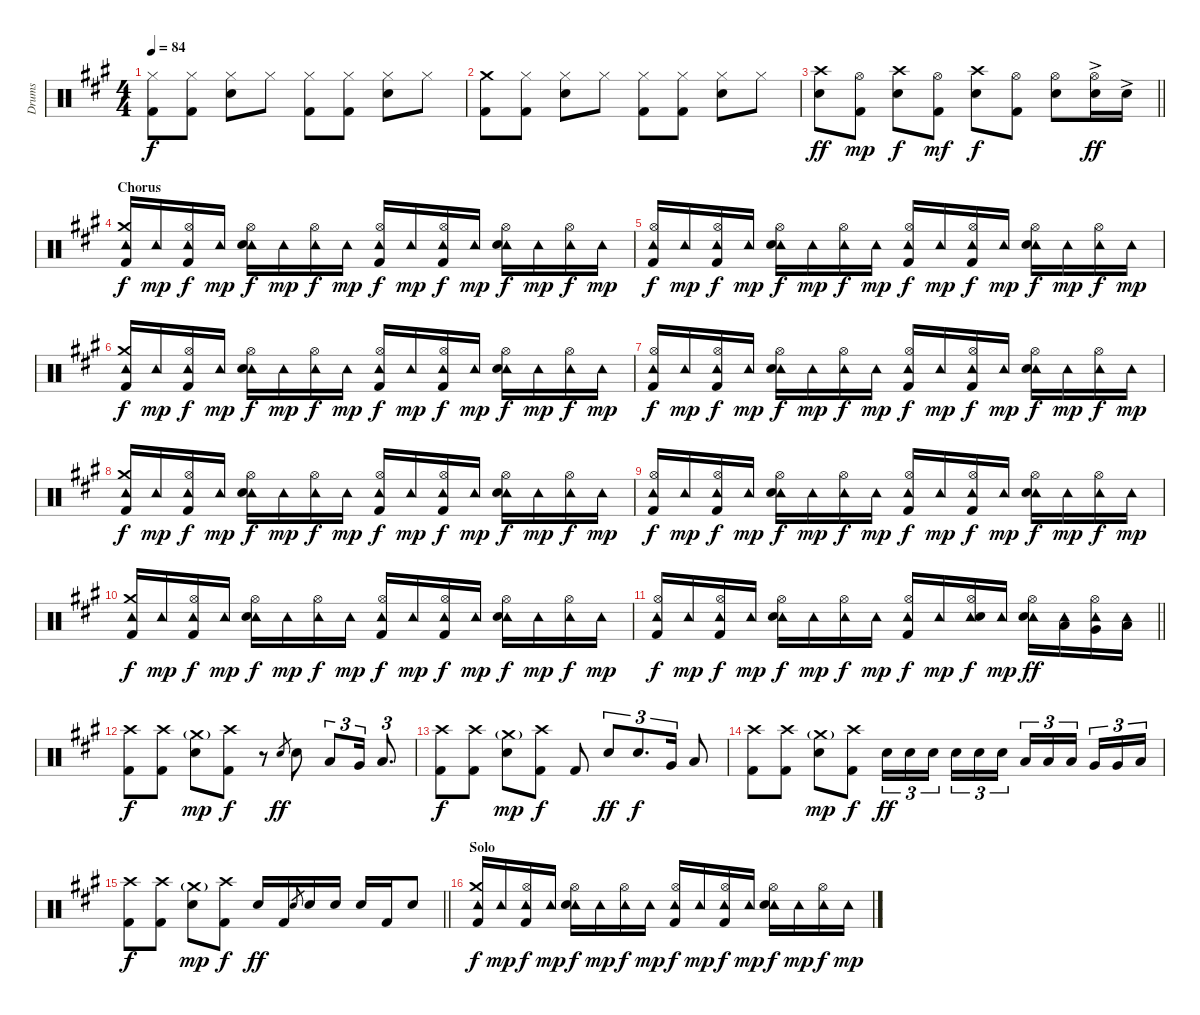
\track ("Drums" "Drums") {instrument percussion}
\staff {score}
\articulation defaults
\ts (4 4)
\tempo 84
\clef neutral
\ks a
("Hi-Hat (closed)" "Kick (hit) 2").8{dy f} ("Hi-Hat (closed)" "Kick (hit) 2").8 ("Hi-Hat (closed)" "Electric Snare (hit)").8 "Hi-Hat (closed)".8 ("Hi-Hat (closed)" "Kick (hit) 2").8 ("Hi-Hat (closed)" "Kick (hit) 2").8 ("Hi-Hat (closed)" "Electric Snare (hit)").8 "Hi-Hat (closed)".8 |
("Crash medium (hit)" "Kick (hit) 2").8 ("Hi-Hat (closed)" "Kick (hit) 2").8 ("Hi-Hat (closed)" "Electric Snare (hit)").8 "Hi-Hat (closed)".8 ("Hi-Hat (closed)" "Kick (hit) 2").8 ("Hi-Hat (closed)" "Kick (hit) 2").8 ("Hi-Hat (closed)" "Electric Snare (hit)").8 "Hi-Hat (closed)".8 |
\barLineRight lightlight
("Crash high (hit)" "Electric Snare (hit)").8{dy ff} ("Hi-Hat (open)" "Kick (hit) 2").8{dy mp} ("Crash high (hit)" "Electric Snare (hit)").8{dy f} ("Hi-Hat (open)" "Kick (hit) 2").8{dy mf} ("Crash high (hit)" "Electric Snare (hit)").8{dy f} ("Hi-Hat (open)" "Kick (hit) 2").8 ("Hi-Hat (open)" "Electric Snare (hit)").8 ("Hi-Hat (open)" "Electric Snare (hit)"{ac}).16{dy ff} "Electric Snare (hit)"{ac}.16 |
\section ("" "Chorus")
("Crash medium (hit)" "Tambourine (hit)" "Kick (hit) 2").16{dy f} "Tambourine (hit)".16{dy mp} ("Hi-Hat (open)" "Tambourine (hit)" "Kick (hit) 2").16{dy f} "Tambourine (hit)".16{dy mp} ("Hi-Hat (open)" "Tambourine (hit)" "Electric Snare (hit)").16{dy f} "Tambourine (hit)".16{dy mp} ("Hi-Hat (open)" "Tambourine (hit)").16{dy f} "Tambourine (hit)".16{dy mp} ("Hi-Hat (open)" "Tambourine (hit)" "Kick (hit) 2").16{dy f} "Tambourine (hit)".16{dy mp} ("Hi-Hat (open)" "Tambourine (hit)" "Kick (hit) 2").16{dy f} "Tambourine (hit)".16{dy mp} ("Hi-Hat (open)" "Tambourine (hit)" "Electric Snare (hit)").16{dy f} "Tambourine (hit)".16{dy mp} ("Hi-Hat (open)" "Tambourine (hit)").16{dy f} "Tambourine (hit)".16{dy mp} |
("Hi-Hat (open)" "Tambourine (hit)" "Kick (hit) 2").16{dy f} "Tambourine (hit)".16{dy mp} ("Hi-Hat (open)" "Tambourine (hit)" "Kick (hit) 2").16{dy f} "Tambourine (hit)".16{dy mp} ("Hi-Hat (open)" "Tambourine (hit)" "Electric Snare (hit)").16{dy f} "Tambourine (hit)".16{dy mp} ("Hi-Hat (open)" "Tambourine (hit)").16{dy f} "Tambourine (hit)".16{dy mp} ("Hi-Hat (open)" "Tambourine (hit)" "Kick (hit) 2").16{dy f} "Tambourine (hit)".16{dy mp} ("Hi-Hat (open)" "Tambourine (hit)" "Kick (hit) 2").16{dy f} "Tambourine (hit)".16{dy mp} ("Hi-Hat (open)" "Tambourine (hit)" "Electric Snare (hit)").16{dy f} "Tambourine (hit)".16{dy mp} ("Hi-Hat (open)" "Tambourine (hit)").16{dy f} "Tambourine (hit)".16{dy mp} |
("Crash medium (hit)" "Tambourine (hit)" "Kick (hit) 2").16{dy f} "Tambourine (hit)".16{dy mp} ("Hi-Hat (open)" "Tambourine (hit)" "Kick (hit) 2").16{dy f} "Tambourine (hit)".16{dy mp} ("Hi-Hat (open)" "Tambourine (hit)" "Electric Snare (hit)").16{dy f} "Tambourine (hit)".16{dy mp} ("Hi-Hat (open)" "Tambourine (hit)").16{dy f} "Tambourine (hit)".16{dy mp} ("Hi-Hat (open)" "Tambourine (hit)" "Kick (hit) 2").16{dy f} "Tambourine (hit)".16{dy mp} ("Hi-Hat (open)" "Tambourine (hit)" "Kick (hit) 2").16{dy f} "Tambourine (hit)".16{dy mp} ("Hi-Hat (open)" "Tambourine (hit)" "Electric Snare (hit)").16{dy f} "Tambourine (hit)".16{dy mp} ("Hi-Hat (open)" "Tambourine (hit)").16{dy f} "Tambourine (hit)".16{dy mp} |
("Hi-Hat (open)" "Tambourine (hit)" "Kick (hit) 2").16{dy f} "Tambourine (hit)".16{dy mp} ("Hi-Hat (open)" "Tambourine (hit)" "Kick (hit) 2").16{dy f} "Tambourine (hit)".16{dy mp} ("Hi-Hat (open)" "Tambourine (hit)" "Electric Snare (hit)").16{dy f} "Tambourine (hit)".16{dy mp} ("Hi-Hat (open)" "Tambourine (hit)").16{dy f} "Tambourine (hit)".16{dy mp} ("Hi-Hat (open)" "Tambourine (hit)" "Kick (hit) 2").16{dy f} "Tambourine (hit)".16{dy mp} ("Hi-Hat (open)" "Tambourine (hit)" "Kick (hit) 2").16{dy f} "Tambourine (hit)".16{dy mp} ("Hi-Hat (open)" "Tambourine (hit)" "Electric Snare (hit)").16{dy f} "Tambourine (hit)".16{dy mp} ("Hi-Hat (open)" "Tambourine (hit)").16{dy f} "Tambourine (hit)".16{dy mp} |
("Crash medium (hit)" "Tambourine (hit)" "Kick (hit) 2").16{dy f} "Tambourine (hit)".16{dy mp} ("Hi-Hat (open)" "Tambourine (hit)" "Kick (hit) 2").16{dy f} "Tambourine (hit)".16{dy mp} ("Hi-Hat (open)" "Tambourine (hit)" "Electric Snare (hit)").16{dy f} "Tambourine (hit)".16{dy mp} ("Hi-Hat (open)" "Tambourine (hit)").16{dy f} "Tambourine (hit)".16{dy mp} ("Hi-Hat (open)" "Tambourine (hit)" "Kick (hit) 2").16{dy f} "Tambourine (hit)".16{dy mp} ("Hi-Hat (open)" "Tambourine (hit)" "Kick (hit) 2").16{dy f} "Tambourine (hit)".16{dy mp} ("Hi-Hat (open)" "Tambourine (hit)" "Electric Snare (hit)").16{dy f} "Tambourine (hit)".16{dy mp} ("Hi-Hat (open)" "Tambourine (hit)").16{dy f} "Tambourine (hit)".16{dy mp} |
("Hi-Hat (open)" "Tambourine (hit)" "Kick (hit) 2").16{dy f} "Tambourine (hit)".16{dy mp} ("Hi-Hat (open)" "Tambourine (hit)" "Kick (hit) 2").16{dy f} "Tambourine (hit)".16{dy mp} ("Hi-Hat (open)" "Tambourine (hit)" "Electric Snare (hit)").16{dy f} "Tambourine (hit)".16{dy mp} ("Hi-Hat (open)" "Tambourine (hit)").16{dy f} "Tambourine (hit)".16{dy mp} ("Hi-Hat (open)" "Tambourine (hit)" "Kick (hit) 2").16{dy f} "Tambourine (hit)".16{dy mp} ("Hi-Hat (open)" "Tambourine (hit)" "Kick (hit) 2").16{dy f} "Tambourine (hit)".16{dy mp} ("Hi-Hat (open)" "Tambourine (hit)" "Electric Snare (hit)").16{dy f} "Tambourine (hit)".16{dy mp} ("Hi-Hat (open)" "Tambourine (hit)").16{dy f} "Tambourine (hit)".16{dy mp} |
("Crash medium (hit)" "Tambourine (hit)" "Kick (hit) 2").16{dy f} "Tambourine (hit)".16{dy mp} ("Hi-Hat (open)" "Tambourine (hit)" "Kick (hit) 2").16{dy f} "Tambourine (hit)".16{dy mp} ("Hi-Hat (open)" "Tambourine (hit)" "Electric Snare (hit)").16{dy f} "Tambourine (hit)".16{dy mp} ("Hi-Hat (open)" "Tambourine (hit)").16{dy f} "Tambourine (hit)".16{dy mp} ("Hi-Hat (open)" "Tambourine (hit)" "Kick (hit) 2").16{dy f} "Tambourine (hit)".16{dy mp} ("Hi-Hat (open)" "Tambourine (hit)" "Kick (hit) 2").16{dy f} "Tambourine (hit)".16{dy mp} ("Hi-Hat (open)" "Tambourine (hit)" "Electric Snare (hit)").16{dy f} "Tambourine (hit)".16{dy mp} ("Hi-Hat (open)" "Tambourine (hit)").16{dy f} "Tambourine (hit)".16{dy mp} |
\barLineRight lightlight
("Hi-Hat (open)" "Tambourine (hit)" "Kick (hit) 2").16{dy f} "Tambourine (hit)".16{dy mp} ("Hi-Hat (open)" "Tambourine (hit)" "Kick (hit) 2").16{dy f} "Tambourine (hit)".16{dy mp} ("Hi-Hat (open)" "Tambourine (hit)" "Electric Snare (hit)").16{dy f} "Tambourine (hit)".16{dy mp} ("Hi-Hat (open)" "Tambourine (hit)").16{dy f} "Tambourine (hit)".16{dy mp} ("Hi-Hat (open)" "Tambourine (hit)" "Kick (hit) 2").16{dy f} "Tambourine (hit)".16{dy mp} ("Hi-Hat (open)" "Tambourine (hit)" "Electric Snare (hit)").16{dy f} "Tambourine (hit)".16{dy mp} ("Hi-Hat (open)" "Tambourine (hit)" "Electric Snare (hit)").16{dy ff} ("Tambourine (hit)" "Low Tom (hit)").16 ("Hi-Hat (open)" "Tambourine (hit)" "Very Low Tom (hit)").16 ("Tambourine (hit)" "Low Floor Tom (hit)").16 |
("Crash high (hit)" "Kick (hit) 2").8{dy f} ("Crash high (hit)" "Kick (hit) 2").8 ("Crash medium (hit)"{g} "Electric Snare (hit)").8{dy mp} ("Crash high (hit)" "Kick (hit) 2").8{dy f} r.8 "Electric Snare (hit)".8{gr dy ff} "Electric Snare (hit)".8 "Low Tom (hit)".8{tu (3 2)} "Very Low Tom (hit)".16{tu (3 2)} "Low Floor Tom (hit)".8{d tu (3 2)} |
("Crash high (hit)" "Kick (hit) 2").8{dy f} ("Crash high (hit)" "Kick (hit) 2").8 ("Crash medium (hit)"{g} "Electric Snare (hit)").8{dy mp} ("Crash high (hit)" "Kick (hit) 2").8{dy f} "Kick (hit) 2".8 "Electric Snare (hit)".8{tu (3 2) dy ff} "Electric Snare (hit)".8{d tu (3 2) dy f} "Very Low Tom (hit)".16{tu (3 2)} "Low Floor Tom (hit)".8 |
("Crash high (hit)" "Kick (hit) 2").8 ("Crash high (hit)" "Kick (hit) 2").8 ("Crash medium (hit)"{g} "Electric Snare (hit)").8{dy mp} ("Crash high (hit)" "Kick (hit) 2").8{dy f} "Electric Snare (hit)".16{tu (3 2) dy ff} "Electric Snare (hit)".16{tu (3 2)} "Electric Snare (hit)".16{tu (3 2) beam splitsecondary} "Electric Snare (hit)".16{tu (3 2)} "Electric Snare (hit)".16{tu (3 2)} "Electric Snare (hit)".16{tu (3 2)} "Low Tom (hit)".16{tu (3 2)} "Low Tom (hit)".16{tu (3 2)} "Low Tom (hit)".16{tu (3 2) beam splitsecondary} "Very Low Tom (hit)".16{tu (3 2)} "Very Low Tom (hit)".16{tu (3 2)} "Low Floor Tom (hit)".16{tu (3 2)} |
\barLineRight lightlight
("Crash high (hit)" "Kick (hit) 2").8{dy f} ("Crash high (hit)" "Kick (hit) 2").8 ("Crash medium (hit)"{g} "Electric Snare (hit)").8{dy mp} ("Crash high (hit)" "Kick (hit) 2").8{dy f} "Electric Snare (hit)".16{dy ff} "Kick (hit) 2".16 "Electric Snare (hit)".8{gr} "Electric Snare (hit)".16 "Electric Snare (hit)".16 "Electric Snare (hit)".16 "Kick (hit) 2".16 "Electric Snare (hit)".8 |
\section ("" "Solo")
("Crash medium (hit)" "Tambourine (hit)" "Kick (hit) 2").16{dy f} "Tambourine (hit)".16{dy mp} ("Hi-Hat (open)" "Tambourine (hit)" "Kick (hit) 2").16{dy f} "Tambourine (hit)".16{dy mp} ("Hi-Hat (open)" "Tambourine (hit)" "Electric Snare (hit)").16{dy f} "Tambourine (hit)".16{dy mp} ("Hi-Hat (open)" "Tambourine (hit)").16{dy f} "Tambourine (hit)".16{dy mp} ("Hi-Hat (open)" "Tambourine (hit)" "Kick (hit) 2").16{dy f} "Tambourine (hit)".16{dy mp} ("Hi-Hat (open)" "Tambourine (hit)" "Kick (hit) 2").16{dy f} "Tambourine (hit)".16{dy mp} ("Hi-Hat (open)" "Tambourine (hit)" "Electric Snare (hit)").16{dy f} "Tambourine (hit)".16{dy mp} ("Hi-Hat (open)" "Tambourine (hit)").16{dy f} "Tambourine (hit)".16{dy mp}
